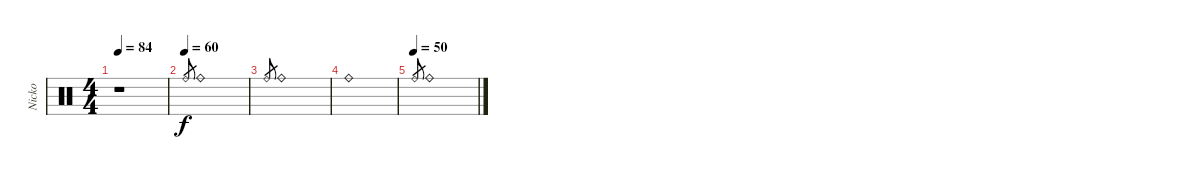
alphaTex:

\track ("Nicko" "Nicko") {instrument percussion}
\staff {score}
\articulation defaults
\ts (4 4)
\tempo 84
\clef neutral
\ks c
r.1{dy f} |
\tempo (60)
"Ride (bell)".8{gr} "Ride (bell)".1 |
"Ride (bell)".8{gr} "Ride (bell)".1 |
"Ride (bell)".1 |
\tempo (50)
"Ride (bell)".8{gr} "Ride (bell)".1
